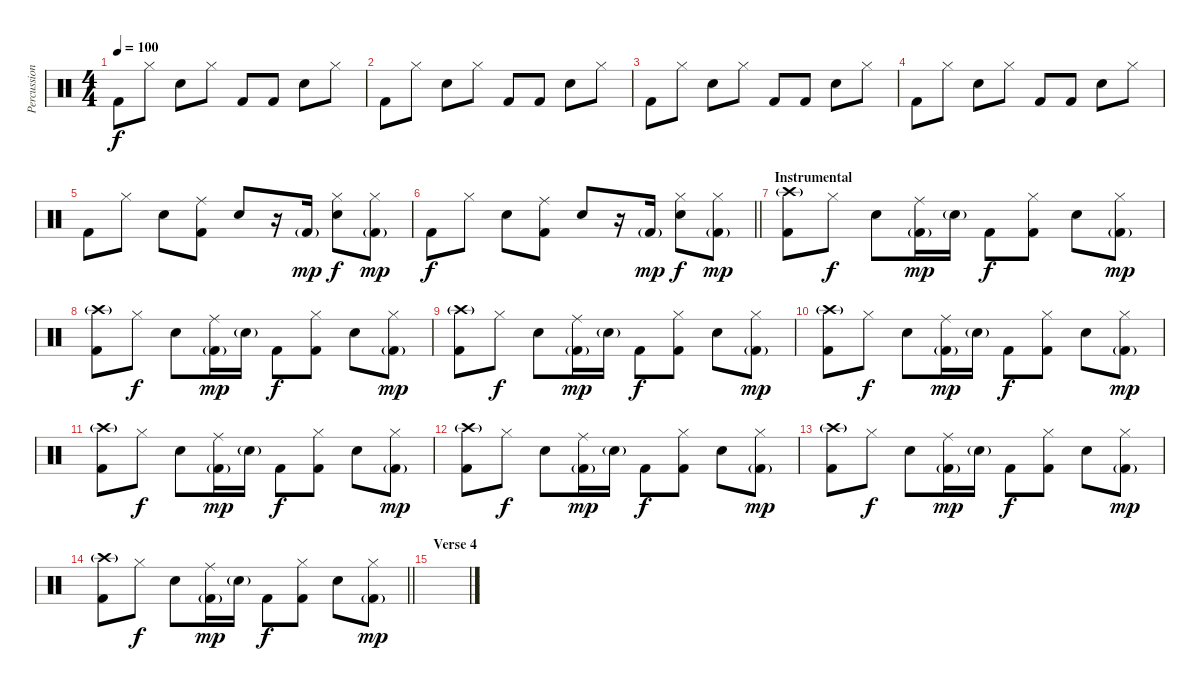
\track ("Percussion" "Percussion") {instrument percussion}
\staff {score}
\articulation defaults
\ts (4 4)
\tempo 100
\clef neutral
\ks c "Kick (hit) 2".8{dy f} "Hi-Hat (closed)".8 "Snare (hit) 2".8 "Hi-Hat (closed)".8 "Kick (hit) 2".8 "Kick (hit) 2".8 "Snare (hit) 2".8 "Hi-Hat (closed)".8
|
"Kick (hit) 2".8 "Hi-Hat (closed)".8 "Snare (hit) 2".8 "Hi-Hat (closed)".8 "Kick (hit) 2".8 "Kick (hit) 2".8 "Snare (hit) 2".8 "Hi-Hat (closed)".8 |
"Kick (hit) 2".8 "Hi-Hat (closed)".8 "Snare (hit) 2".8 "Hi-Hat (closed)".8 "Kick (hit) 2".8 "Kick (hit) 2".8 "Snare (hit) 2".8 "Hi-Hat (closed)".8 |
"Kick (hit) 2".8 "Hi-Hat (closed)".8 "Snare (hit) 2".8 "Hi-Hat (closed)".8 "Kick (hit) 2".8 "Kick (hit) 2".8 "Snare (hit) 2".8 "Hi-Hat (closed)".8 |
"Kick (hit) 2".8 "Hi-Hat (closed)".8 "Snare (hit) 2".8 ("Ride (middle)" "Kick (hit) 2").8 "Snare (hit) 2".8 r.16 "Kick (hit) 2"{g}.16{dy mp} ("Hi-Hat (closed)" "Snare (hit) 2").8{dy f} ("Hi-Hat (closed)" "Kick (hit) 2"{g}).8{dy mp} |
\barLineRight lightlight "Kick (hit) 2".8{dy f} "Hi-Hat (closed)".8 "Snare (hit) 2".8
("Ride (middle)" "Kick (hit) 2").8 "Snare (hit) 2".8 r.16 "Kick (hit) 2"{g}.16{dy mp} ("Hi-Hat (closed)" "Snare (hit) 2").8{dy f} ("Hi-Hat (closed)" "Kick (hit) 2"{g}).8{dy mp} |
\section ("" "Instrumental")
("Crash high (hit)"{g} "Kick (hit) 2").8 "Hi-Hat (closed)".8{dy f} "Snare (hit) 2".8 ("Ride (middle)" "Kick (hit) 2"{g}).16{dy mp} "Snare (hit) 2"{g}.16 "Kick (hit) 2".8{dy f} ("Hi-Hat (closed)" "Kick (hit) 2").8 "Snare (hit) 2".8 ("Hi-Hat (closed)" "Kick (hit) 2"{g}).8{dy mp} |
("Crash high (hit)"{g} "Kick (hit) 2").8 "Hi-Hat (closed)".8{dy f} "Snare (hit) 2".8 ("Ride (middle)" "Kick (hit) 2"{g}).16{dy mp} "Snare (hit) 2"{g}.16 "Kick (hit) 2".8{dy f} ("Hi-Hat (closed)" "Kick (hit) 2").8 "Snare (hit) 2".8 ("Hi-Hat (closed)" "Kick (hit) 2"{g}).8{dy mp} |
("Crash high (hit)"{g} "Kick (hit) 2").8 "Hi-Hat (closed)".8{dy f} "Snare (hit) 2".8 ("Ride (middle)" "Kick (hit) 2"{g}).16{dy mp} "Snare (hit) 2"{g}.16 "Kick (hit) 2".8{dy f} ("Hi-Hat (closed)" "Kick (hit) 2").8 "Snare (hit) 2".8 ("Hi-Hat (closed)" "Kick (hit) 2"{g}).8{dy mp} |
("Crash high (hit)"{g} "Kick (hit) 2").8 "Hi-Hat (closed)".8{dy f} "Snare (hit) 2".8 ("Ride (middle)" "Kick (hit) 2"{g}).16{dy mp} "Snare (hit) 2"{g}.16 "Kick (hit) 2".8{dy f} ("Hi-Hat (closed)" "Kick (hit) 2").8 "Snare (hit) 2".8 ("Hi-Hat (closed)" "Kick (hit) 2"{g}).8{dy mp} |
("Crash high (hit)"{g} "Kick (hit) 2").8 "Hi-Hat (closed)".8{dy f} "Snare (hit) 2".8 ("Ride (middle)" "Kick (hit) 2"{g}).16{dy mp} "Snare (hit) 2"{g}.16 "Kick (hit) 2".8{dy f} ("Hi-Hat (closed)" "Kick (hit) 2").8 "Snare (hit) 2".8 ("Hi-Hat (closed)" "Kick (hit) 2"{g}).8{dy mp} |
("Crash high (hit)"{g} "Kick (hit) 2").8 "Hi-Hat (closed)".8{dy f} "Snare (hit) 2".8 ("Ride (middle)" "Kick (hit) 2"{g}).16{dy mp} "Snare (hit) 2"{g}.16 "Kick (hit) 2".8{dy f} ("Hi-Hat (closed)" "Kick (hit) 2").8 "Snare (hit) 2".8 ("Hi-Hat (closed)" "Kick (hit) 2"{g}).8{dy mp} |
("Crash high (hit)"{g} "Kick (hit) 2").8 "Hi-Hat (closed)".8{dy f} "Snare (hit) 2".8 ("Ride (middle)" "Kick (hit) 2"{g}).16{dy mp} "Snare (hit) 2"{g}.16 "Kick (hit) 2".8{dy f} ("Hi-Hat (closed)" "Kick (hit) 2").8 "Snare (hit) 2".8 ("Hi-Hat (closed)" "Kick (hit) 2"{g}).8{dy mp} |
\barLineRight lightlight
("Crash high (hit)"{g} "Kick (hit) 2").8 "Hi-Hat (closed)".8{dy f} "Snare (hit) 2".8 ("Ride (middle)" "Kick (hit) 2"{g}).16{dy mp} "Snare (hit) 2"{g}.16 "Kick (hit) 2".8{dy f} ("Hi-Hat (closed)" "Kick (hit) 2").8 "Snare (hit) 2".8 ("Hi-Hat (closed)" "Kick (hit) 2"{g}).8{dy mp} |
\section ("" "Verse 4")
